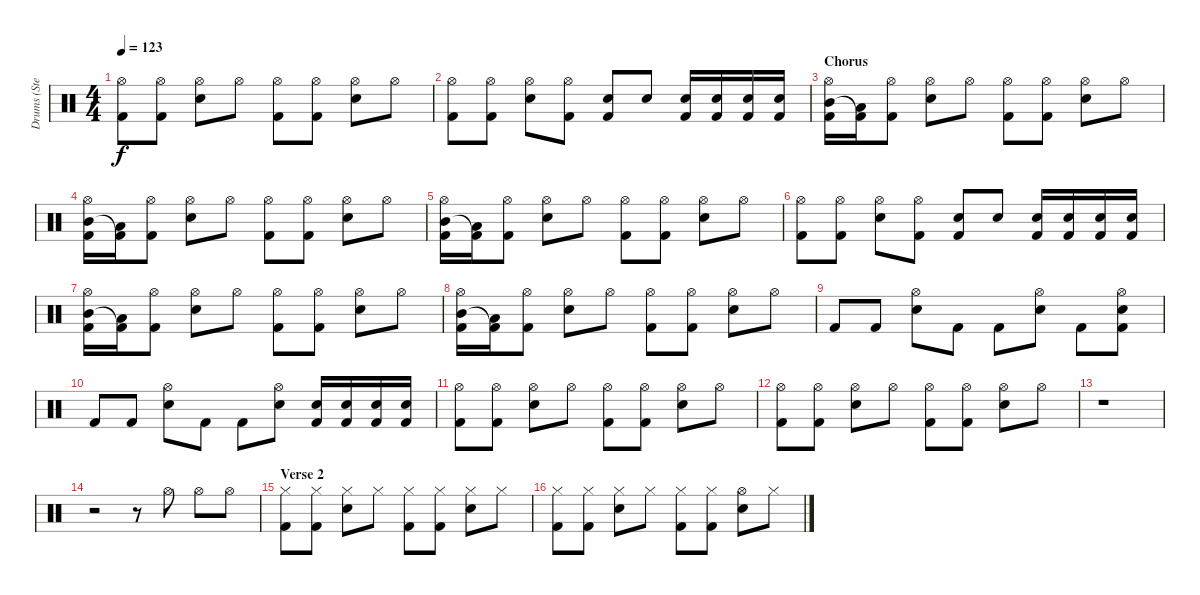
\track ("Drums (Steve)" "Drums (Ste") {instrument percussion}
\staff {score}
\articulation defaults
\ts (4 4)
\tempo 123
\clef neutral
\ks c
("Hi-Hat (open)" "Kick (hit) 2").8{dy f} ("Hi-Hat (open)" "Kick (hit) 2").8 ("Hi-Hat (open)" "Snare (hit) 2").8 "Hi-Hat (open)".8 ("Hi-Hat (open)" "Kick (hit) 2").8 ("Hi-Hat (open)" "Kick (hit) 2").8 ("Hi-Hat (open)" "Snare (hit) 2").8 "Hi-Hat (open)".8 |
("Hi-Hat (open)" "Kick (hit) 2").8 ("Hi-Hat (open)" "Kick (hit) 2").8 ("Hi-Hat (open)" "Snare (hit) 2").8 ("Hi-Hat (open)" "Kick (hit) 2").8 ("Snare (hit) 2" "Kick (hit) 2").8 "Snare (hit) 2".8 ("Snare (hit) 2" "Kick (hit) 2").16 ("Snare (hit) 2" "Kick (hit) 2").16 ("Snare (hit) 2" "Kick (hit) 2").16 ("Snare (hit) 2" "Kick (hit) 2").16 |
\section ("" "Chorus")
("Hi-Hat (open)" "Mid Tom (hit)" "Kick (hit) 2").16 ("Low Tom (hit)" "Kick (hit) 2"{t}).16 ("Hi-Hat (open)" "Kick (hit) 2").8 ("Hi-Hat (open)" "Snare (hit) 2").8 "Hi-Hat (open)".8 ("Hi-Hat (open)" "Kick (hit) 2").8 ("Hi-Hat (open)" "Kick (hit) 2").8 ("Hi-Hat (open)" "Snare (hit) 2").8 "Hi-Hat (open)".8 |
("Hi-Hat (open)" "Mid Tom (hit)" "Kick (hit) 2").16 ("Low Tom (hit)" "Kick (hit) 2"{t}).16 ("Hi-Hat (open)" "Kick (hit) 2").8 ("Hi-Hat (open)" "Snare (hit) 2").8 "Hi-Hat (open)".8 ("Hi-Hat (open)" "Kick (hit) 2").8 ("Hi-Hat (open)" "Kick (hit) 2").8 ("Hi-Hat (open)" "Snare (hit) 2").8 "Hi-Hat (open)".8 |
("Hi-Hat (open)" "Mid Tom (hit)" "Kick (hit) 2").16 ("Low Tom (hit)" "Kick (hit) 2"{t}).16 ("Hi-Hat (open)" "Kick (hit) 2").8 ("Hi-Hat (open)" "Snare (hit) 2").8 "Hi-Hat (open)".8 ("Hi-Hat (open)" "Kick (hit) 2").8 ("Hi-Hat (open)" "Kick (hit) 2").8 ("Hi-Hat (open)" "Snare (hit) 2").8 "Hi-Hat (open)".8 |
("Hi-Hat (open)" "Kick (hit) 2").8 ("Hi-Hat (open)" "Kick (hit) 2").8 ("Hi-Hat (open)" "Snare (hit) 2").8 ("Hi-Hat (open)" "Kick (hit) 2").8 ("Snare (hit) 2" "Kick (hit) 2").8 "Snare (hit) 2".8 ("Snare (hit) 2" "Kick (hit) 2").16 ("Snare (hit) 2" "Kick (hit) 2").16 ("Snare (hit) 2" "Kick (hit) 2").16 ("Snare (hit) 2" "Kick (hit) 2").16 |
("Hi-Hat (open)" "Mid Tom (hit)" "Kick (hit) 2").16 ("Low Tom (hit)" "Kick (hit) 2"{t}).16 ("Hi-Hat (open)" "Kick (hit) 2").8 ("Hi-Hat (open)" "Snare (hit) 2").8 "Hi-Hat (open)".8 ("Hi-Hat (open)" "Kick (hit) 2").8 ("Hi-Hat (open)" "Kick (hit) 2").8 ("Hi-Hat (open)" "Snare (hit) 2").8 "Hi-Hat (open)".8 |
("Hi-Hat (open)" "Mid Tom (hit)" "Kick (hit) 2").16 ("Low Tom (hit)" "Kick (hit) 2"{t}).16 ("Hi-Hat (open)" "Kick (hit) 2").8 ("Hi-Hat (open)" "Snare (hit) 2").8 "Hi-Hat (open)".8 ("Hi-Hat (open)" "Kick (hit) 2").8 ("Hi-Hat (open)" "Kick (hit) 2").8 ("Hi-Hat (open)" "Snare (hit) 2").8 "Hi-Hat (open)".8 |
"Kick (hit) 2".8 "Kick (hit) 2".8 ("Hi-Hat (open)" "Snare (hit) 2").8 "Kick (hit) 2".8 "Kick (hit) 2".8 ("Hi-Hat (open)" "Snare (hit) 2").8 "Kick (hit) 2".8 ("Hi-Hat (open)" "Snare (hit) 2" "Kick (hit) 2").8 |
"Kick (hit) 2".8 "Kick (hit) 2".8 ("Hi-Hat (open)" "Snare (hit) 2").8 "Kick (hit) 2".8 "Kick (hit) 2".8 ("Hi-Hat (open)" "Snare (hit) 2").8 ("Snare (hit) 2" "Kick (hit) 2").16 ("Snare (hit) 2" "Kick (hit) 2").16 ("Snare (hit) 2" "Kick (hit) 2").16 ("Snare (hit) 2" "Kick (hit) 2").16 |
("Hi-Hat (open)" "Kick (hit) 2").8 ("Hi-Hat (open)" "Kick (hit) 2").8 ("Hi-Hat (open)" "Snare (hit) 2").8 "Hi-Hat (open)".8 ("Hi-Hat (open)" "Kick (hit) 2").8 ("Hi-Hat (open)" "Kick (hit) 2").8 ("Hi-Hat (open)" "Snare (hit) 2").8 "Hi-Hat (open)".8 |
("Hi-Hat (open)" "Kick (hit) 2").8 ("Hi-Hat (open)" "Kick (hit) 2").8 ("Hi-Hat (open)" "Snare (hit) 2").8 "Hi-Hat (open)".8 ("Hi-Hat (open)" "Kick (hit) 2").8 ("Hi-Hat (open)" "Kick (hit) 2").8 ("Hi-Hat (open)" "Snare (hit) 2").8 "Hi-Hat (open)".8 |
r.1 |
r.2 r.8 "Hi-Hat (open)".8 "Hi-Hat (open)".8 "Hi-Hat (open)".8 |
\section ("" "Verse 2")
("Hi-Hat (closed)" "Kick (hit) 2").8 ("Hi-Hat (closed)" "Kick (hit) 2").8 ("Hi-Hat (closed)" "Snare (hit) 2").8 "Hi-Hat (closed)".8 ("Hi-Hat (closed)" "Kick (hit) 2").8 ("Hi-Hat (closed)" "Kick (hit) 2").8 ("Hi-Hat (closed)" "Snare (hit) 2").8 "Hi-Hat (closed)".8 |
("Hi-Hat (closed)" "Kick (hit) 2").8 ("Hi-Hat (closed)" "Kick (hit) 2").8 ("Hi-Hat (closed)" "Snare (hit) 2").8 "Hi-Hat (closed)".8 ("Hi-Hat (closed)" "Kick (hit) 2").8 ("Hi-Hat (closed)" "Kick (hit) 2").8 ("Hi-Hat (open)" "Snare (hit) 2").8 "Hi-Hat (closed)".8
